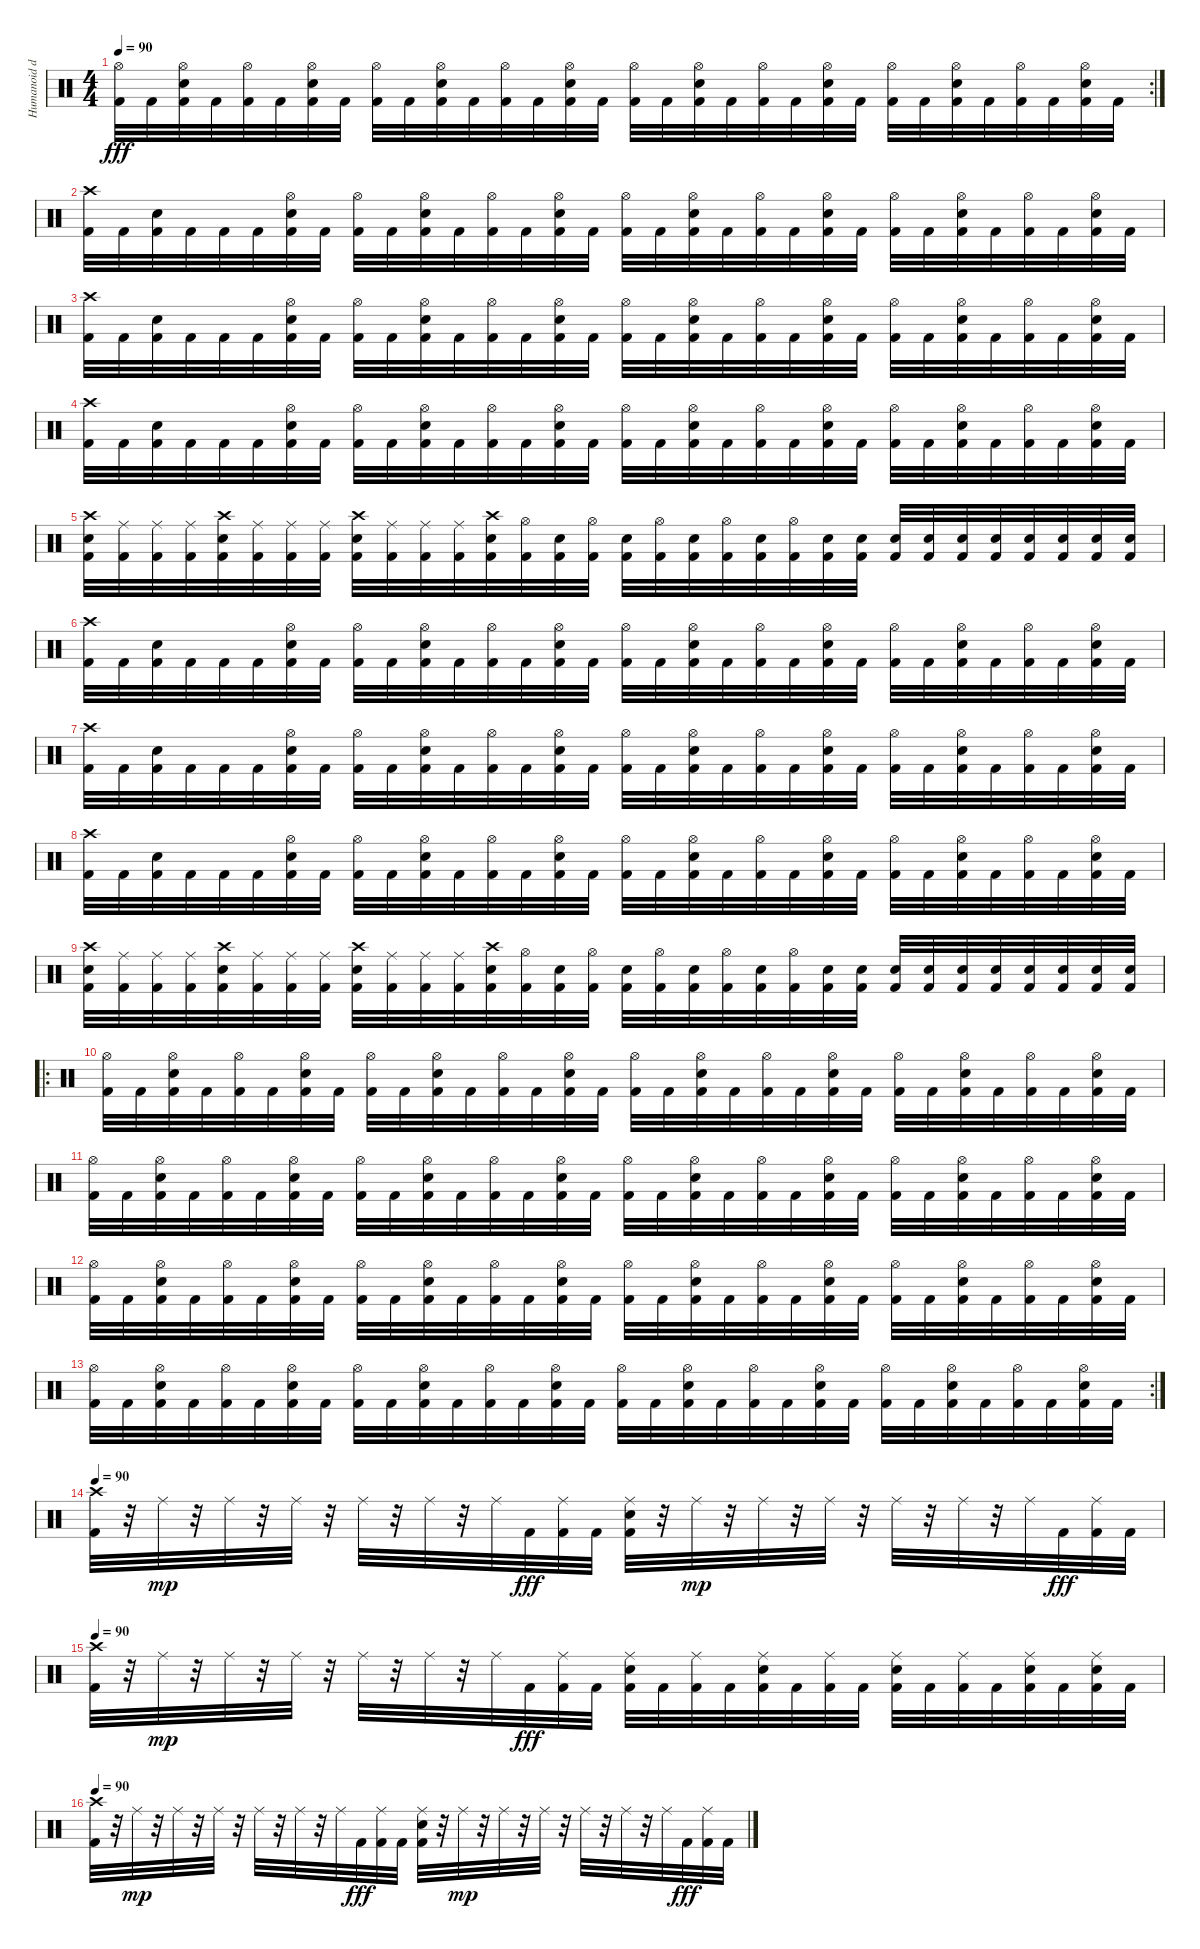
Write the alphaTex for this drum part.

\track ("Humanoid drum machine" "Humanoid d") {instrument percussion}
\staff {score}
\articulation defaults
\rc 2
\ts (4 4)
\tempo 90
\clef neutral
\ks c
("Hi-Hat (open)" "Kick (hit) 2").32{dy fff} "Kick (hit) 2".32 ("Hi-Hat (open)" "Electric Snare (hit)" "Kick (hit) 2").32 "Kick (hit) 2".32 ("Hi-Hat (open)" "Kick (hit) 2").32 "Kick (hit) 2".32 ("Hi-Hat (open)" "Electric Snare (hit)" "Kick (hit) 2").32 "Kick (hit) 2".32 ("Hi-Hat (open)" "Kick (hit) 2").32 "Kick (hit) 2".32 ("Hi-Hat (open)" "Electric Snare (hit)" "Kick (hit) 2").32 "Kick (hit) 2".32 ("Hi-Hat (open)" "Kick (hit) 2").32 "Kick (hit) 2".32 ("Hi-Hat (open)" "Electric Snare (hit)" "Kick (hit) 2").32 "Kick (hit) 2".32 ("Hi-Hat (open)" "Kick (hit) 2").32 "Kick (hit) 2".32 ("Hi-Hat (open)" "Electric Snare (hit)" "Kick (hit) 2").32 "Kick (hit) 2".32 ("Hi-Hat (open)" "Kick (hit) 2").32 "Kick (hit) 2".32 ("Hi-Hat (open)" "Electric Snare (hit)" "Kick (hit) 2").32 "Kick (hit) 2".32 ("Hi-Hat (open)" "Kick (hit) 2").32 "Kick (hit) 2".32 ("Hi-Hat (open)" "Electric Snare (hit)" "Kick (hit) 2").32 "Kick (hit) 2".32 ("Hi-Hat (open)" "Kick (hit) 2").32 "Kick (hit) 2".32 ("Hi-Hat (open)" "Electric Snare (hit)" "Kick (hit) 2").32 "Kick (hit) 2".32 |
("Crash high (hit)" "Kick (hit) 2").32 "Kick (hit) 2".32 ("Electric Snare (hit)" "Kick (hit) 2").32 "Kick (hit) 2".32 "Kick (hit) 2".32 "Kick (hit) 2".32 ("Hi-Hat (open)" "Electric Snare (hit)" "Kick (hit) 2").32 "Kick (hit) 2".32 ("Hi-Hat (open)" "Kick (hit) 2").32 "Kick (hit) 2".32 ("Hi-Hat (open)" "Electric Snare (hit)" "Kick (hit) 2").32 "Kick (hit) 2".32 ("Hi-Hat (open)" "Kick (hit) 2").32 "Kick (hit) 2".32 ("Hi-Hat (open)" "Electric Snare (hit)" "Kick (hit) 2").32 "Kick (hit) 2".32 ("Hi-Hat (open)" "Kick (hit) 2").32 "Kick (hit) 2".32 ("Hi-Hat (open)" "Electric Snare (hit)" "Kick (hit) 2").32 "Kick (hit) 2".32 ("Hi-Hat (open)" "Kick (hit) 2").32 "Kick (hit) 2".32 ("Hi-Hat (open)" "Electric Snare (hit)" "Kick (hit) 2").32 "Kick (hit) 2".32 ("Hi-Hat (open)" "Kick (hit) 2").32 "Kick (hit) 2".32 ("Hi-Hat (open)" "Electric Snare (hit)" "Kick (hit) 2").32 "Kick (hit) 2".32 ("Hi-Hat (open)" "Kick (hit) 2").32 "Kick (hit) 2".32 ("Hi-Hat (open)" "Electric Snare (hit)" "Kick (hit) 2").32 "Kick (hit) 2".32 |
("Crash high (hit)" "Kick (hit) 2").32 "Kick (hit) 2".32 ("Electric Snare (hit)" "Kick (hit) 2").32 "Kick (hit) 2".32 "Kick (hit) 2".32 "Kick (hit) 2".32 ("Hi-Hat (open)" "Electric Snare (hit)" "Kick (hit) 2").32 "Kick (hit) 2".32 ("Hi-Hat (open)" "Kick (hit) 2").32 "Kick (hit) 2".32 ("Hi-Hat (open)" "Electric Snare (hit)" "Kick (hit) 2").32 "Kick (hit) 2".32 ("Hi-Hat (open)" "Kick (hit) 2").32 "Kick (hit) 2".32 ("Hi-Hat (open)" "Electric Snare (hit)" "Kick (hit) 2").32 "Kick (hit) 2".32 ("Hi-Hat (open)" "Kick (hit) 2").32 "Kick (hit) 2".32 ("Hi-Hat (open)" "Electric Snare (hit)" "Kick (hit) 2").32 "Kick (hit) 2".32 ("Hi-Hat (open)" "Kick (hit) 2").32 "Kick (hit) 2".32 ("Hi-Hat (open)" "Electric Snare (hit)" "Kick (hit) 2").32 "Kick (hit) 2".32 ("Hi-Hat (open)" "Kick (hit) 2").32 "Kick (hit) 2".32 ("Hi-Hat (open)" "Electric Snare (hit)" "Kick (hit) 2").32 "Kick (hit) 2".32 ("Hi-Hat (open)" "Kick (hit) 2").32 "Kick (hit) 2".32 ("Hi-Hat (open)" "Electric Snare (hit)" "Kick (hit) 2").32 "Kick (hit) 2".32 |
("Crash high (hit)" "Kick (hit) 2").32 "Kick (hit) 2".32 ("Electric Snare (hit)" "Kick (hit) 2").32 "Kick (hit) 2".32 "Kick (hit) 2".32 "Kick (hit) 2".32 ("Hi-Hat (open)" "Electric Snare (hit)" "Kick (hit) 2").32 "Kick (hit) 2".32 ("Hi-Hat (open)" "Kick (hit) 2").32 "Kick (hit) 2".32 ("Hi-Hat (open)" "Electric Snare (hit)" "Kick (hit) 2").32 "Kick (hit) 2".32 ("Hi-Hat (open)" "Kick (hit) 2").32 "Kick (hit) 2".32 ("Hi-Hat (open)" "Electric Snare (hit)" "Kick (hit) 2").32 "Kick (hit) 2".32 ("Hi-Hat (open)" "Kick (hit) 2").32 "Kick (hit) 2".32 ("Hi-Hat (open)" "Electric Snare (hit)" "Kick (hit) 2").32 "Kick (hit) 2".32 ("Hi-Hat (open)" "Kick (hit) 2").32 "Kick (hit) 2".32 ("Hi-Hat (open)" "Electric Snare (hit)" "Kick (hit) 2").32 "Kick (hit) 2".32 ("Hi-Hat (open)" "Kick (hit) 2").32 "Kick (hit) 2".32 ("Hi-Hat (open)" "Electric Snare (hit)" "Kick (hit) 2").32 "Kick (hit) 2".32 ("Hi-Hat (open)" "Kick (hit) 2").32 "Kick (hit) 2".32 ("Hi-Hat (open)" "Electric Snare (hit)" "Kick (hit) 2").32 "Kick (hit) 2".32 |
("Crash high (hit)" "Electric Snare (hit)" "Kick (hit) 2").32 ("Ride (middle)" "Kick (hit) 2").32 ("Ride (middle)" "Kick (hit) 2").32 ("Ride (middle)" "Kick (hit) 2").32 ("Crash high (hit)" "Electric Snare (hit)" "Kick (hit) 2").32 ("Ride (middle)" "Kick (hit) 2").32 ("Ride (middle)" "Kick (hit) 2").32 ("Ride (middle)" "Kick (hit) 2").32 ("Crash high (hit)" "Electric Snare (hit)" "Kick (hit) 2").32 ("Ride (middle)" "Kick (hit) 2").32 ("Ride (middle)" "Kick (hit) 2").32 ("Ride (middle)" "Kick (hit) 2").32 ("Crash high (hit)" "Electric Snare (hit)" "Kick (hit) 2").32 ("Hi-Hat (open)" "Kick (hit) 2").32 ("Electric Snare (hit)" "Kick (hit) 2").32 ("Hi-Hat (open)" "Kick (hit) 2").32 ("Electric Snare (hit)" "Kick (hit) 2").32 ("Hi-Hat (open)" "Kick (hit) 2").32 ("Electric Snare (hit)" "Kick (hit) 2").32 ("Hi-Hat (open)" "Kick (hit) 2").32 ("Electric Snare (hit)" "Kick (hit) 2").32 ("Hi-Hat (open)" "Kick (hit) 2").32 ("Electric Snare (hit)" "Kick (hit) 2").32 ("Electric Snare (hit)" "Kick (hit) 2").32 ("Electric Snare (hit)" "Kick (hit) 2").32 ("Electric Snare (hit)" "Kick (hit) 2").32 ("Electric Snare (hit)" "Kick (hit) 2").32 ("Electric Snare (hit)" "Kick (hit) 2").32 ("Electric Snare (hit)" "Kick (hit) 2").32 ("Electric Snare (hit)" "Kick (hit) 2").32 ("Electric Snare (hit)" "Kick (hit) 2").32 ("Electric Snare (hit)" "Kick (hit) 2").32 |
("Crash high (hit)" "Kick (hit) 2").32 "Kick (hit) 2".32 ("Electric Snare (hit)" "Kick (hit) 2").32 "Kick (hit) 2".32 "Kick (hit) 2".32 "Kick (hit) 2".32 ("Hi-Hat (open)" "Electric Snare (hit)" "Kick (hit) 2").32 "Kick (hit) 2".32 ("Hi-Hat (open)" "Kick (hit) 2").32 "Kick (hit) 2".32 ("Hi-Hat (open)" "Electric Snare (hit)" "Kick (hit) 2").32 "Kick (hit) 2".32 ("Hi-Hat (open)" "Kick (hit) 2").32 "Kick (hit) 2".32 ("Hi-Hat (open)" "Electric Snare (hit)" "Kick (hit) 2").32 "Kick (hit) 2".32 ("Hi-Hat (open)" "Kick (hit) 2").32 "Kick (hit) 2".32 ("Hi-Hat (open)" "Electric Snare (hit)" "Kick (hit) 2").32 "Kick (hit) 2".32 ("Hi-Hat (open)" "Kick (hit) 2").32 "Kick (hit) 2".32 ("Hi-Hat (open)" "Electric Snare (hit)" "Kick (hit) 2").32 "Kick (hit) 2".32 ("Hi-Hat (open)" "Kick (hit) 2").32 "Kick (hit) 2".32 ("Hi-Hat (open)" "Electric Snare (hit)" "Kick (hit) 2").32 "Kick (hit) 2".32 ("Hi-Hat (open)" "Kick (hit) 2").32 "Kick (hit) 2".32 ("Hi-Hat (open)" "Electric Snare (hit)" "Kick (hit) 2").32 "Kick (hit) 2".32 |
("Crash high (hit)" "Kick (hit) 2").32 "Kick (hit) 2".32 ("Electric Snare (hit)" "Kick (hit) 2").32 "Kick (hit) 2".32 "Kick (hit) 2".32 "Kick (hit) 2".32 ("Hi-Hat (open)" "Electric Snare (hit)" "Kick (hit) 2").32 "Kick (hit) 2".32 ("Hi-Hat (open)" "Kick (hit) 2").32 "Kick (hit) 2".32 ("Hi-Hat (open)" "Electric Snare (hit)" "Kick (hit) 2").32 "Kick (hit) 2".32 ("Hi-Hat (open)" "Kick (hit) 2").32 "Kick (hit) 2".32 ("Hi-Hat (open)" "Electric Snare (hit)" "Kick (hit) 2").32 "Kick (hit) 2".32 ("Hi-Hat (open)" "Kick (hit) 2").32 "Kick (hit) 2".32 ("Hi-Hat (open)" "Electric Snare (hit)" "Kick (hit) 2").32 "Kick (hit) 2".32 ("Hi-Hat (open)" "Kick (hit) 2").32 "Kick (hit) 2".32 ("Hi-Hat (open)" "Electric Snare (hit)" "Kick (hit) 2").32 "Kick (hit) 2".32 ("Hi-Hat (open)" "Kick (hit) 2").32 "Kick (hit) 2".32 ("Hi-Hat (open)" "Electric Snare (hit)" "Kick (hit) 2").32 "Kick (hit) 2".32 ("Hi-Hat (open)" "Kick (hit) 2").32 "Kick (hit) 2".32 ("Hi-Hat (open)" "Electric Snare (hit)" "Kick (hit) 2").32 "Kick (hit) 2".32 |
("Crash high (hit)" "Kick (hit) 2").32 "Kick (hit) 2".32 ("Electric Snare (hit)" "Kick (hit) 2").32 "Kick (hit) 2".32 "Kick (hit) 2".32 "Kick (hit) 2".32 ("Hi-Hat (open)" "Electric Snare (hit)" "Kick (hit) 2").32 "Kick (hit) 2".32 ("Hi-Hat (open)" "Kick (hit) 2").32 "Kick (hit) 2".32 ("Hi-Hat (open)" "Electric Snare (hit)" "Kick (hit) 2").32 "Kick (hit) 2".32 ("Hi-Hat (open)" "Kick (hit) 2").32 "Kick (hit) 2".32 ("Hi-Hat (open)" "Electric Snare (hit)" "Kick (hit) 2").32 "Kick (hit) 2".32 ("Hi-Hat (open)" "Kick (hit) 2").32 "Kick (hit) 2".32 ("Hi-Hat (open)" "Electric Snare (hit)" "Kick (hit) 2").32 "Kick (hit) 2".32 ("Hi-Hat (open)" "Kick (hit) 2").32 "Kick (hit) 2".32 ("Hi-Hat (open)" "Electric Snare (hit)" "Kick (hit) 2").32 "Kick (hit) 2".32 ("Hi-Hat (open)" "Kick (hit) 2").32 "Kick (hit) 2".32 ("Hi-Hat (open)" "Electric Snare (hit)" "Kick (hit) 2").32 "Kick (hit) 2".32 ("Hi-Hat (open)" "Kick (hit) 2").32 "Kick (hit) 2".32 ("Hi-Hat (open)" "Electric Snare (hit)" "Kick (hit) 2").32 "Kick (hit) 2".32 |
("Crash high (hit)" "Electric Snare (hit)" "Kick (hit) 2").32 ("Ride (middle)" "Kick (hit) 2").32 ("Ride (middle)" "Kick (hit) 2").32 ("Ride (middle)" "Kick (hit) 2").32 ("Crash high (hit)" "Electric Snare (hit)" "Kick (hit) 2").32 ("Ride (middle)" "Kick (hit) 2").32 ("Ride (middle)" "Kick (hit) 2").32 ("Ride (middle)" "Kick (hit) 2").32 ("Crash high (hit)" "Electric Snare (hit)" "Kick (hit) 2").32 ("Ride (middle)" "Kick (hit) 2").32 ("Ride (middle)" "Kick (hit) 2").32 ("Ride (middle)" "Kick (hit) 2").32 ("Crash high (hit)" "Electric Snare (hit)" "Kick (hit) 2").32 ("Hi-Hat (open)" "Kick (hit) 2").32 ("Electric Snare (hit)" "Kick (hit) 2").32 ("Hi-Hat (open)" "Kick (hit) 2").32 ("Electric Snare (hit)" "Kick (hit) 2").32 ("Hi-Hat (open)" "Kick (hit) 2").32 ("Electric Snare (hit)" "Kick (hit) 2").32 ("Hi-Hat (open)" "Kick (hit) 2").32 ("Electric Snare (hit)" "Kick (hit) 2").32 ("Hi-Hat (open)" "Kick (hit) 2").32 ("Electric Snare (hit)" "Kick (hit) 2").32 ("Electric Snare (hit)" "Kick (hit) 2").32 ("Electric Snare (hit)" "Kick (hit) 2").32 ("Electric Snare (hit)" "Kick (hit) 2").32 ("Electric Snare (hit)" "Kick (hit) 2").32 ("Electric Snare (hit)" "Kick (hit) 2").32 ("Electric Snare (hit)" "Kick (hit) 2").32 ("Electric Snare (hit)" "Kick (hit) 2").32 ("Electric Snare (hit)" "Kick (hit) 2").32 ("Electric Snare (hit)" "Kick (hit) 2").32 |
\ro
("Hi-Hat (open)" "Kick (hit) 2").32 "Kick (hit) 2".32 ("Hi-Hat (open)" "Electric Snare (hit)" "Kick (hit) 2").32 "Kick (hit) 2".32 ("Hi-Hat (open)" "Kick (hit) 2").32 "Kick (hit) 2".32 ("Hi-Hat (open)" "Electric Snare (hit)" "Kick (hit) 2").32 "Kick (hit) 2".32 ("Hi-Hat (open)" "Kick (hit) 2").32 "Kick (hit) 2".32 ("Hi-Hat (open)" "Electric Snare (hit)" "Kick (hit) 2").32 "Kick (hit) 2".32 ("Hi-Hat (open)" "Kick (hit) 2").32 "Kick (hit) 2".32 ("Hi-Hat (open)" "Electric Snare (hit)" "Kick (hit) 2").32 "Kick (hit) 2".32 ("Hi-Hat (open)" "Kick (hit) 2").32 "Kick (hit) 2".32 ("Hi-Hat (open)" "Electric Snare (hit)" "Kick (hit) 2").32 "Kick (hit) 2".32 ("Hi-Hat (open)" "Kick (hit) 2").32 "Kick (hit) 2".32 ("Hi-Hat (open)" "Electric Snare (hit)" "Kick (hit) 2").32 "Kick (hit) 2".32 ("Hi-Hat (open)" "Kick (hit) 2").32 "Kick (hit) 2".32 ("Hi-Hat (open)" "Electric Snare (hit)" "Kick (hit) 2").32 "Kick (hit) 2".32 ("Hi-Hat (open)" "Kick (hit) 2").32 "Kick (hit) 2".32 ("Hi-Hat (open)" "Electric Snare (hit)" "Kick (hit) 2").32 "Kick (hit) 2".32 |
("Hi-Hat (open)" "Kick (hit) 2").32 "Kick (hit) 2".32 ("Hi-Hat (open)" "Electric Snare (hit)" "Kick (hit) 2").32 "Kick (hit) 2".32 ("Hi-Hat (open)" "Kick (hit) 2").32 "Kick (hit) 2".32 ("Hi-Hat (open)" "Electric Snare (hit)" "Kick (hit) 2").32 "Kick (hit) 2".32 ("Hi-Hat (open)" "Kick (hit) 2").32 "Kick (hit) 2".32 ("Hi-Hat (open)" "Electric Snare (hit)" "Kick (hit) 2").32 "Kick (hit) 2".32 ("Hi-Hat (open)" "Kick (hit) 2").32 "Kick (hit) 2".32 ("Hi-Hat (open)" "Electric Snare (hit)" "Kick (hit) 2").32 "Kick (hit) 2".32 ("Hi-Hat (open)" "Kick (hit) 2").32 "Kick (hit) 2".32 ("Hi-Hat (open)" "Electric Snare (hit)" "Kick (hit) 2").32 "Kick (hit) 2".32 ("Hi-Hat (open)" "Kick (hit) 2").32 "Kick (hit) 2".32 ("Hi-Hat (open)" "Electric Snare (hit)" "Kick (hit) 2").32 "Kick (hit) 2".32 ("Hi-Hat (open)" "Kick (hit) 2").32 "Kick (hit) 2".32 ("Hi-Hat (open)" "Electric Snare (hit)" "Kick (hit) 2").32 "Kick (hit) 2".32 ("Hi-Hat (open)" "Kick (hit) 2").32 "Kick (hit) 2".32 ("Hi-Hat (open)" "Electric Snare (hit)" "Kick (hit) 2").32 "Kick (hit) 2".32 |
("Hi-Hat (open)" "Kick (hit) 2").32 "Kick (hit) 2".32 ("Hi-Hat (open)" "Electric Snare (hit)" "Kick (hit) 2").32 "Kick (hit) 2".32 ("Hi-Hat (open)" "Kick (hit) 2").32 "Kick (hit) 2".32 ("Hi-Hat (open)" "Electric Snare (hit)" "Kick (hit) 2").32 "Kick (hit) 2".32 ("Hi-Hat (open)" "Kick (hit) 2").32 "Kick (hit) 2".32 ("Hi-Hat (open)" "Electric Snare (hit)" "Kick (hit) 2").32 "Kick (hit) 2".32 ("Hi-Hat (open)" "Kick (hit) 2").32 "Kick (hit) 2".32 ("Hi-Hat (open)" "Electric Snare (hit)" "Kick (hit) 2").32 "Kick (hit) 2".32 ("Hi-Hat (open)" "Kick (hit) 2").32 "Kick (hit) 2".32 ("Hi-Hat (open)" "Electric Snare (hit)" "Kick (hit) 2").32 "Kick (hit) 2".32 ("Hi-Hat (open)" "Kick (hit) 2").32 "Kick (hit) 2".32 ("Hi-Hat (open)" "Electric Snare (hit)" "Kick (hit) 2").32 "Kick (hit) 2".32 ("Hi-Hat (open)" "Kick (hit) 2").32 "Kick (hit) 2".32 ("Hi-Hat (open)" "Electric Snare (hit)" "Kick (hit) 2").32 "Kick (hit) 2".32 ("Hi-Hat (open)" "Kick (hit) 2").32 "Kick (hit) 2".32 ("Hi-Hat (open)" "Electric Snare (hit)" "Kick (hit) 2").32 "Kick (hit) 2".32 |
\rc 2
("Hi-Hat (open)" "Kick (hit) 2").32 "Kick (hit) 2".32 ("Hi-Hat (open)" "Electric Snare (hit)" "Kick (hit) 2").32 "Kick (hit) 2".32 ("Hi-Hat (open)" "Kick (hit) 2").32 "Kick (hit) 2".32 ("Hi-Hat (open)" "Electric Snare (hit)" "Kick (hit) 2").32 "Kick (hit) 2".32 ("Hi-Hat (open)" "Kick (hit) 2").32 "Kick (hit) 2".32 ("Hi-Hat (open)" "Electric Snare (hit)" "Kick (hit) 2").32 "Kick (hit) 2".32 ("Hi-Hat (open)" "Kick (hit) 2").32 "Kick (hit) 2".32 ("Hi-Hat (open)" "Electric Snare (hit)" "Kick (hit) 2").32 "Kick (hit) 2".32 ("Hi-Hat (open)" "Kick (hit) 2").32 "Kick (hit) 2".32 ("Hi-Hat (open)" "Electric Snare (hit)" "Kick (hit) 2").32 "Kick (hit) 2".32 ("Hi-Hat (open)" "Kick (hit) 2").32 "Kick (hit) 2".32 ("Hi-Hat (open)" "Electric Snare (hit)" "Kick (hit) 2").32 "Kick (hit) 2".32 ("Hi-Hat (open)" "Kick (hit) 2").32 "Kick (hit) 2".32 ("Hi-Hat (open)" "Electric Snare (hit)" "Kick (hit) 2").32 "Kick (hit) 2".32 ("Hi-Hat (open)" "Kick (hit) 2").32 "Kick (hit) 2".32 ("Hi-Hat (open)" "Electric Snare (hit)" "Kick (hit) 2").32 "Kick (hit) 2".32 |
\tempo 90
("Crash high (hit)" "Kick (hit) 2").32 r.32 "Ride (middle)".32{dy mp} r.32 "Ride (middle)".32 r.32 "Ride (middle)".32 r.32 "Ride (middle)".32 r.32 "Ride (middle)".32 r.32 "Ride (middle)".32 "Kick (hit) 2".32{dy fff} ("Ride (middle)" "Kick (hit) 2").32 "Kick (hit) 2".32 ("Electric Snare (hit)" "Ride (middle)" "Kick (hit) 2").32 r.32 "Ride (middle)".32{dy mp} r.32 "Ride (middle)".32 r.32 "Ride (middle)".32 r.32 "Ride (middle)".32 r.32 "Ride (middle)".32 r.32 "Ride (middle)".32 "Kick (hit) 2".32{dy fff} ("Ride (middle)" "Kick (hit) 2").32 "Kick (hit) 2".32 |
\tempo 90
("Crash high (hit)" "Kick (hit) 2").32 r.32 "Ride (middle)".32{dy mp} r.32 "Ride (middle)".32 r.32 "Ride (middle)".32 r.32 "Ride (middle)".32 r.32 "Ride (middle)".32 r.32 "Ride (middle)".32 "Kick (hit) 2".32{dy fff} ("Ride (middle)" "Kick (hit) 2").32 "Kick (hit) 2".32 ("Electric Snare (hit)" "Ride (middle)" "Kick (hit) 2").32 "Kick (hit) 2".32 ("Ride (middle)" "Kick (hit) 2").32 "Kick (hit) 2".32 ("Electric Snare (hit)" "Ride (middle)" "Kick (hit) 2").32 "Kick (hit) 2".32 ("Ride (middle)" "Kick (hit) 2").32 "Kick (hit) 2".32 ("Electric Snare (hit)" "Ride (middle)" "Kick (hit) 2").32 "Kick (hit) 2".32 ("Ride (middle)" "Kick (hit) 2").32 "Kick (hit) 2".32 ("Electric Snare (hit)" "Ride (middle)" "Kick (hit) 2").32 "Kick (hit) 2".32 ("Electric Snare (hit)" "Ride (middle)" "Kick (hit) 2").32 "Kick (hit) 2".32 |
\tempo 90
("Crash high (hit)" "Kick (hit) 2").32 r.32 "Ride (middle)".32{dy mp} r.32 "Ride (middle)".32 r.32 "Ride (middle)".32 r.32 "Ride (middle)".32 r.32 "Ride (middle)".32 r.32 "Ride (middle)".32 "Kick (hit) 2".32{dy fff} ("Ride (middle)" "Kick (hit) 2").32 "Kick (hit) 2".32 ("Electric Snare (hit)" "Ride (middle)" "Kick (hit) 2").32 r.32 "Ride (middle)".32{dy mp} r.32 "Ride (middle)".32 r.32 "Ride (middle)".32 r.32 "Ride (middle)".32 r.32 "Ride (middle)".32 r.32 "Ride (middle)".32 "Kick (hit) 2".32{dy fff} ("Ride (middle)" "Kick (hit) 2").32 "Kick (hit) 2".32
